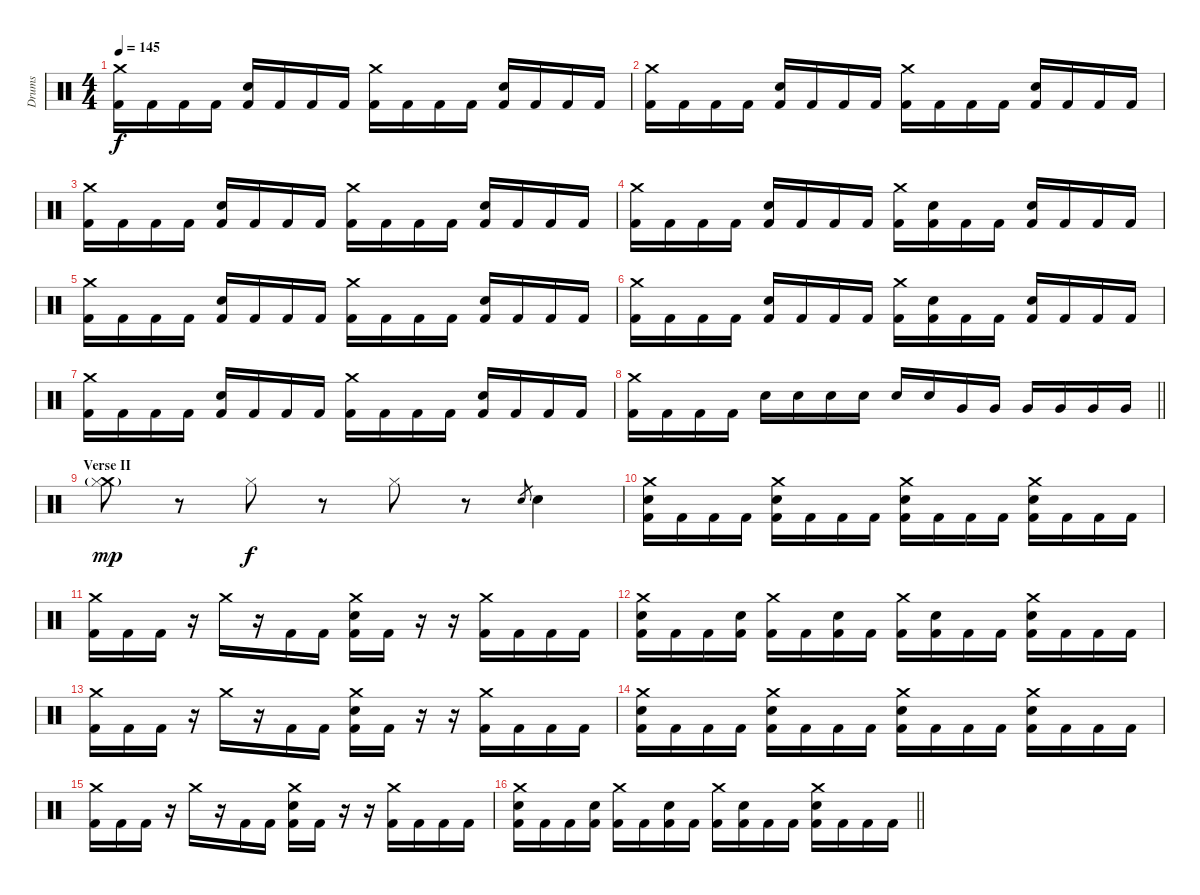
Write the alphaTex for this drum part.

\track ("Drums" "Drums") {instrument percussion}
\staff {score}
\articulation defaults
\ts (4 4)
\tempo 145
\clef neutral
\ks c
("Crash medium (hit)" "Kick (hit) 2").16{dy f} "Kick (hit) 2".16 "Kick (hit) 2".16 "Kick (hit) 2".16 ("Snare (hit) 2" "Kick (hit) 2").16 "Kick (hit) 2".16 "Kick (hit) 2".16 "Kick (hit) 2".16 ("Crash medium (hit)" "Kick (hit) 2").16 "Kick (hit) 2".16 "Kick (hit) 2".16 "Kick (hit) 2".16 ("Snare (hit) 2" "Kick (hit) 2").16 "Kick (hit) 2".16 "Kick (hit) 2".16 "Kick (hit) 2".16 |
("Crash medium (hit)" "Kick (hit) 2").16 "Kick (hit) 2".16 "Kick (hit) 2".16 "Kick (hit) 2".16 ("Snare (hit) 2" "Kick (hit) 2").16 "Kick (hit) 2".16 "Kick (hit) 2".16 "Kick (hit) 2".16 ("Crash medium (hit)" "Kick (hit) 2").16 "Kick (hit) 2".16 "Kick (hit) 2".16 "Kick (hit) 2".16 ("Snare (hit) 2" "Kick (hit) 2").16 "Kick (hit) 2".16 "Kick (hit) 2".16 "Kick (hit) 2".16 |
("Crash medium (hit)" "Kick (hit) 2").16 "Kick (hit) 2".16 "Kick (hit) 2".16 "Kick (hit) 2".16 ("Snare (hit) 2" "Kick (hit) 2").16 "Kick (hit) 2".16 "Kick (hit) 2".16 "Kick (hit) 2".16 ("Crash medium (hit)" "Kick (hit) 2").16 "Kick (hit) 2".16 "Kick (hit) 2".16 "Kick (hit) 2".16 ("Snare (hit) 2" "Kick (hit) 2").16 "Kick (hit) 2".16 "Kick (hit) 2".16 "Kick (hit) 2".16 |
("Crash medium (hit)" "Kick (hit) 2").16 "Kick (hit) 2".16 "Kick (hit) 2".16 "Kick (hit) 2".16 ("Snare (hit) 2" "Kick (hit) 2").16 "Kick (hit) 2".16 "Kick (hit) 2".16 "Kick (hit) 2".16 ("Crash medium (hit)" "Kick (hit) 2").16 ("Snare (hit) 2" "Kick (hit) 2").16 "Kick (hit) 2".16 "Kick (hit) 2".16 ("Snare (hit) 2" "Kick (hit) 2").16 "Kick (hit) 2".16 "Kick (hit) 2".16 "Kick (hit) 2".16 |
("Crash medium (hit)" "Kick (hit) 2").16 "Kick (hit) 2".16 "Kick (hit) 2".16 "Kick (hit) 2".16 ("Snare (hit) 2" "Kick (hit) 2").16 "Kick (hit) 2".16 "Kick (hit) 2".16 "Kick (hit) 2".16 ("Crash medium (hit)" "Kick (hit) 2").16 "Kick (hit) 2".16 "Kick (hit) 2".16 "Kick (hit) 2".16 ("Snare (hit) 2" "Kick (hit) 2").16 "Kick (hit) 2".16 "Kick (hit) 2".16 "Kick (hit) 2".16 |
("Crash medium (hit)" "Kick (hit) 2").16 "Kick (hit) 2".16 "Kick (hit) 2".16 "Kick (hit) 2".16 ("Snare (hit) 2" "Kick (hit) 2").16 "Kick (hit) 2".16 "Kick (hit) 2".16 "Kick (hit) 2".16 ("Crash medium (hit)" "Kick (hit) 2").16 ("Snare (hit) 2" "Kick (hit) 2").16 "Kick (hit) 2".16 "Kick (hit) 2".16 ("Snare (hit) 2" "Kick (hit) 2").16 "Kick (hit) 2".16 "Kick (hit) 2".16 "Kick (hit) 2".16 |
("Crash medium (hit)" "Kick (hit) 2").16 "Kick (hit) 2".16 "Kick (hit) 2".16 "Kick (hit) 2".16 ("Snare (hit) 2" "Kick (hit) 2").16 "Kick (hit) 2".16 "Kick (hit) 2".16 "Kick (hit) 2".16 ("Crash medium (hit)" "Kick (hit) 2").16 "Kick (hit) 2".16 "Kick (hit) 2".16 "Kick (hit) 2".16 ("Snare (hit) 2" "Kick (hit) 2").16 "Kick (hit) 2".16 "Kick (hit) 2".16 "Kick (hit) 2".16 |
\barLineRight lightlight
("Crash medium (hit)" "Kick (hit) 2").16 "Kick (hit) 2".16 "Kick (hit) 2".16 "Kick (hit) 2".16 "Snare (hit) 2".16 "Snare (hit) 2".16 "Snare (hit) 2".16 "Snare (hit) 2".16 "Snare (hit) 2".16 "Snare (hit) 2".16 "Very Low Tom (hit)".16 "Very Low Tom (hit)".16 "Very Low Tom (hit)".16 "Very Low Tom (hit)".16 "Very Low Tom (hit)".16 "Very Low Tom (hit)".16 |
\section ("" "Verse II")
("Crash medium (hit)"{g} "Hi-Hat (closed)").8{dy mp} r.8 "Hi-Hat (closed)".8{dy f} r.8 "Hi-Hat (closed)".8 r.8 "Electric Snare (hit)".8{gr} "Electric Snare (hit)".4 |
("Crash medium (hit)" "Snare (hit) 2" "Kick (hit) 2").16 "Kick (hit) 2".16 "Kick (hit) 2".16 "Kick (hit) 2".16 ("Crash medium (hit)" "Snare (hit) 2" "Kick (hit) 2").16 "Kick (hit) 2".16 "Kick (hit) 2".16 "Kick (hit) 2".16 ("Crash medium (hit)" "Snare (hit) 2" "Kick (hit) 2").16 "Kick (hit) 2".16 "Kick (hit) 2".16 "Kick (hit) 2".16 ("Crash medium (hit)" "Snare (hit) 2" "Kick (hit) 2").16 "Kick (hit) 2".16 "Kick (hit) 2".16 "Kick (hit) 2".16 |
("Crash medium (hit)" "Kick (hit) 2").16 "Kick (hit) 2".16 "Kick (hit) 2".16 r.16 "Crash medium (hit)".16 r.16 "Kick (hit) 2".16 "Kick (hit) 2".16 ("Crash medium (hit)" "Snare (hit) 2" "Kick (hit) 2").16 "Kick (hit) 2".16 r.16 r.16 ("Crash medium (hit)" "Kick (hit) 2").16 "Kick (hit) 2".16 "Kick (hit) 2".16 "Kick (hit) 2".16 |
("Crash medium (hit)" "Snare (hit) 2" "Kick (hit) 2").16 "Kick (hit) 2".16 "Kick (hit) 2".16 ("Snare (hit) 2" "Kick (hit) 2").16 ("Crash medium (hit)" "Kick (hit) 2").16 "Kick (hit) 2".16 ("Snare (hit) 2" "Kick (hit) 2").16 "Kick (hit) 2".16 ("Crash medium (hit)" "Kick (hit) 2").16 ("Snare (hit) 2" "Kick (hit) 2").16 "Kick (hit) 2".16 "Kick (hit) 2".16 ("Crash medium (hit)" "Snare (hit) 2" "Kick (hit) 2").16 "Kick (hit) 2".16 "Kick (hit) 2".16 "Kick (hit) 2".16 |
("Crash medium (hit)" "Kick (hit) 2").16 "Kick (hit) 2".16 "Kick (hit) 2".16 r.16 "Crash medium (hit)".16 r.16 "Kick (hit) 2".16 "Kick (hit) 2".16 ("Crash medium (hit)" "Snare (hit) 2" "Kick (hit) 2").16 "Kick (hit) 2".16 r.16 r.16 ("Crash medium (hit)" "Kick (hit) 2").16 "Kick (hit) 2".16 "Kick (hit) 2".16 "Kick (hit) 2".16 |
("Crash medium (hit)" "Snare (hit) 2" "Kick (hit) 2").16 "Kick (hit) 2".16 "Kick (hit) 2".16 "Kick (hit) 2".16 ("Crash medium (hit)" "Snare (hit) 2" "Kick (hit) 2").16 "Kick (hit) 2".16 "Kick (hit) 2".16 "Kick (hit) 2".16 ("Crash medium (hit)" "Snare (hit) 2" "Kick (hit) 2").16 "Kick (hit) 2".16 "Kick (hit) 2".16 "Kick (hit) 2".16 ("Crash medium (hit)" "Snare (hit) 2" "Kick (hit) 2").16 "Kick (hit) 2".16 "Kick (hit) 2".16 "Kick (hit) 2".16 |
("Crash medium (hit)" "Kick (hit) 2").16 "Kick (hit) 2".16 "Kick (hit) 2".16 r.16 "Crash medium (hit)".16 r.16 "Kick (hit) 2".16 "Kick (hit) 2".16 ("Crash medium (hit)" "Snare (hit) 2" "Kick (hit) 2").16 "Kick (hit) 2".16 r.16 r.16 ("Crash medium (hit)" "Kick (hit) 2").16 "Kick (hit) 2".16 "Kick (hit) 2".16 "Kick (hit) 2".16 |
\barLineRight lightlight
("Crash medium (hit)" "Snare (hit) 2" "Kick (hit) 2").16 "Kick (hit) 2".16 "Kick (hit) 2".16 ("Snare (hit) 2" "Kick (hit) 2").16 ("Crash medium (hit)" "Kick (hit) 2").16 "Kick (hit) 2".16 ("Snare (hit) 2" "Kick (hit) 2").16 "Kick (hit) 2".16 ("Crash medium (hit)" "Kick (hit) 2").16 ("Snare (hit) 2" "Kick (hit) 2").16 "Kick (hit) 2".16 "Kick (hit) 2".16 ("Crash medium (hit)" "Snare (hit) 2" "Kick (hit) 2").16 "Kick (hit) 2".16 "Kick (hit) 2".16 "Kick (hit) 2".16
